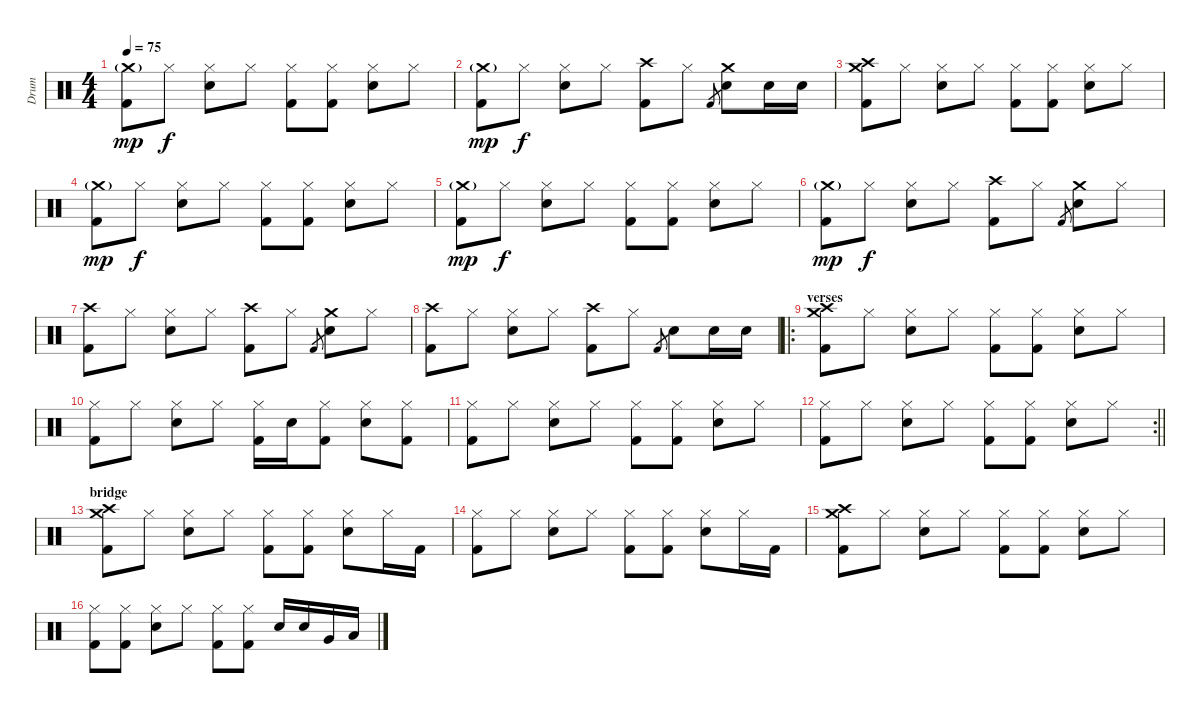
\track ("Drum" "Drum") {instrument percussion}
\staff {score}
\articulation defaults
\ts (4 4)
\tempo 75
\clef neutral
\ks c
("Kick (hit) 2" "Crash medium (hit)"{g}).8{dy mp} "Hi-Hat (closed)".8{dy f} ("Electric Snare (hit)" "Hi-Hat (closed)").8 "Hi-Hat (closed)".8 ("Kick (hit) 2" "Hi-Hat (closed)").8 ("Kick (hit) 2" "Hi-Hat (closed)").8 ("Electric Snare (hit)" "Hi-Hat (closed)").8 "Hi-Hat (closed)".8 |
("Kick (hit) 2" "Crash medium (hit)"{g}).8{dy mp} "Hi-Hat (closed)".8{dy f} ("Electric Snare (hit)" "Hi-Hat (closed)").8 "Hi-Hat (closed)".8 ("Kick (hit) 2" "Crash high (hit)").8 "Hi-Hat (closed)".8 "Kick (hit) 2".8{gr} ("Electric Snare (hit)" "Crash medium (hit)").8 "Electric Snare (hit)".16 "Electric Snare (hit)".16 |
("Kick (hit) 2" "Crash high (hit)" "Crash medium (hit)").8 "Hi-Hat (closed)".8 ("Electric Snare (hit)" "Hi-Hat (closed)").8 "Hi-Hat (closed)".8 ("Kick (hit) 2" "Hi-Hat (closed)").8 ("Kick (hit) 2" "Hi-Hat (closed)").8 ("Electric Snare (hit)" "Hi-Hat (closed)").8 "Hi-Hat (closed)".8 |
("Kick (hit) 2" "Crash medium (hit)"{g}).8{dy mp} "Hi-Hat (closed)".8{dy f} ("Electric Snare (hit)" "Hi-Hat (closed)").8 "Hi-Hat (closed)".8 ("Kick (hit) 2" "Hi-Hat (closed)").8 ("Kick (hit) 2" "Hi-Hat (closed)").8 ("Electric Snare (hit)" "Hi-Hat (closed)").8 "Hi-Hat (closed)".8 |
("Kick (hit) 2" "Crash medium (hit)"{g}).8{dy mp} "Hi-Hat (closed)".8{dy f} ("Electric Snare (hit)" "Hi-Hat (closed)").8 "Hi-Hat (closed)".8 ("Kick (hit) 2" "Hi-Hat (closed)").8 ("Kick (hit) 2" "Hi-Hat (closed)").8 ("Electric Snare (hit)" "Hi-Hat (closed)").8 "Hi-Hat (closed)".8 |
("Kick (hit) 2" "Crash medium (hit)"{g}).8{dy mp} "Hi-Hat (closed)".8{dy f} ("Electric Snare (hit)" "Hi-Hat (closed)").8 "Hi-Hat (closed)".8 ("Kick (hit) 2" "Crash high (hit)").8 "Hi-Hat (closed)".8 "Kick (hit) 2".8{gr} ("Electric Snare (hit)" "Crash medium (hit)").8 "Hi-Hat (closed)".8 |
("Kick (hit) 2" "Crash high (hit)").8 "Hi-Hat (closed)".8 ("Electric Snare (hit)" "Hi-Hat (closed)").8 "Hi-Hat (closed)".8 ("Kick (hit) 2" "Crash high (hit)").8 "Hi-Hat (closed)".8 "Kick (hit) 2".8{gr} ("Electric Snare (hit)" "Crash medium (hit)").8 "Hi-Hat (closed)".8 |
("Kick (hit) 2" "Crash high (hit)").8 "Hi-Hat (closed)".8 ("Electric Snare (hit)" "Hi-Hat (closed)").8 "Hi-Hat (closed)".8 ("Kick (hit) 2" "Crash high (hit)").8 "Hi-Hat (closed)".8 "Kick (hit) 2".8{gr} "Electric Snare (hit)".8 "Electric Snare (hit)".16 "Electric Snare (hit)".16 |
\ro
\section ("" "verses")
("Kick (hit) 2" "Crash high (hit)" "Crash medium (hit)").8 "Hi-Hat (closed)".8 ("Electric Snare (hit)" "Hi-Hat (closed)").8 "Hi-Hat (closed)".8 ("Kick (hit) 2" "Hi-Hat (closed)").8 ("Kick (hit) 2" "Hi-Hat (closed)").8 ("Electric Snare (hit)" "Hi-Hat (closed)").8 "Hi-Hat (closed)".8 |
("Kick (hit) 2" "Hi-Hat (closed)").8 "Hi-Hat (closed)".8 ("Electric Snare (hit)" "Hi-Hat (closed)").8 "Hi-Hat (closed)".8 ("Kick (hit) 2" "Hi-Hat (closed)").16 "Electric Snare (hit)".16 ("Kick (hit) 2" "Hi-Hat (closed)").8 ("Electric Snare (hit)" "Hi-Hat (closed)").8 ("Kick (hit) 2" "Hi-Hat (closed)").8 |
("Kick (hit) 2" "Hi-Hat (closed)").8 "Hi-Hat (closed)".8 ("Electric Snare (hit)" "Hi-Hat (closed)").8 "Hi-Hat (closed)".8 ("Kick (hit) 2" "Hi-Hat (closed)").8 ("Kick (hit) 2" "Hi-Hat (closed)").8 ("Electric Snare (hit)" "Hi-Hat (closed)").8 "Hi-Hat (closed)".8 |
\rc 2
\barLineRight lightlight
("Kick (hit) 2" "Hi-Hat (closed)").8 "Hi-Hat (closed)".8 ("Electric Snare (hit)" "Hi-Hat (closed)").8 "Hi-Hat (closed)".8 ("Kick (hit) 2" "Hi-Hat (closed)").8 ("Kick (hit) 2" "Hi-Hat (closed)").8 ("Electric Snare (hit)" "Hi-Hat (closed)").8 "Hi-Hat (closed)".8 |
\section ("" "bridge")
("Kick (hit) 2" "Crash high (hit)" "Crash medium (hit)").8 "Hi-Hat (closed)".8 ("Electric Snare (hit)" "Hi-Hat (closed)").8 "Hi-Hat (closed)".8 ("Kick (hit) 2" "Hi-Hat (closed)").8 ("Kick (hit) 2" "Hi-Hat (closed)").8 ("Electric Snare (hit)" "Hi-Hat (closed)").8 "Hi-Hat (closed)".16 "Kick (hit) 2".16 |
("Kick (hit) 2" "Hi-Hat (closed)").8 "Hi-Hat (closed)".8 ("Electric Snare (hit)" "Hi-Hat (closed)").8 "Hi-Hat (closed)".8 ("Kick (hit) 2" "Hi-Hat (closed)").8 ("Kick (hit) 2" "Hi-Hat (closed)").8 ("Electric Snare (hit)" "Hi-Hat (closed)").8 "Hi-Hat (closed)".16 "Kick (hit) 2".16 |
("Kick (hit) 2" "Crash high (hit)" "Crash medium (hit)").8 "Hi-Hat (closed)".8 ("Electric Snare (hit)" "Hi-Hat (closed)").8 "Hi-Hat (closed)".8 ("Kick (hit) 2" "Hi-Hat (closed)").8 ("Kick (hit) 2" "Hi-Hat (closed)").8 ("Electric Snare (hit)" "Hi-Hat (closed)").8 "Hi-Hat (closed)".8 |
("Kick (hit) 2" "Hi-Hat (closed)").8 ("Kick (hit) 2" "Hi-Hat (closed)").8 ("Electric Snare (hit)" "Hi-Hat (closed)").8 "Hi-Hat (closed)".8 ("Kick (hit) 2" "Hi-Hat (closed)").8 ("Kick (hit) 2" "Hi-Hat (closed)").8 "Electric Snare (hit)".16 "Electric Snare (hit)".16 "Very Low Tom (hit)".16 "Low Floor Tom (hit)".16
